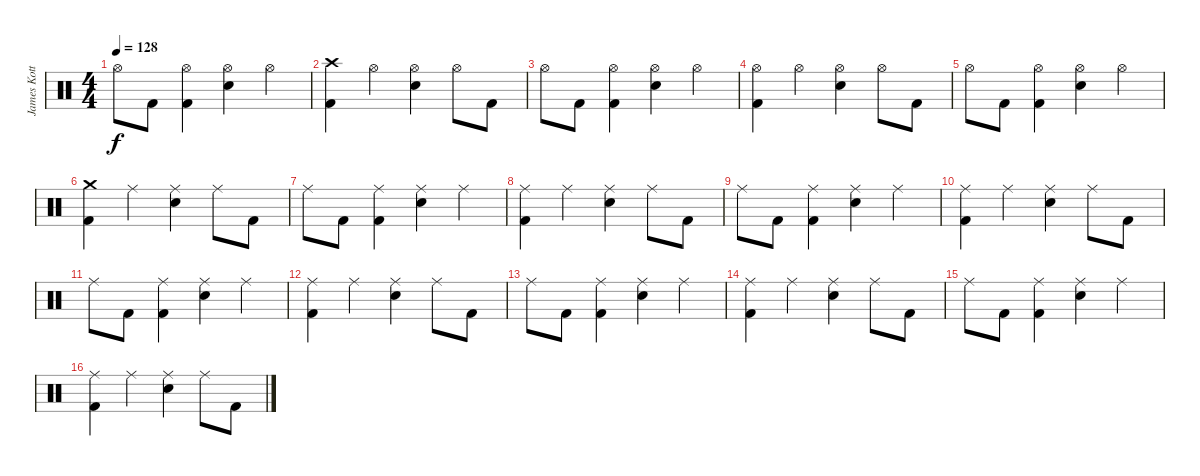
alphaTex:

\track ("James Kottak" "James Kott") {instrument percussion}
\staff {score}
\articulation defaults
\ts (4 4)
\tempo 128
\clef neutral
\ks c "Hi-Hat (open)".8{dy f} "Kick (hit) 2".8
("Hi-Hat (open)" "Kick (hit) 2").4 ("Hi-Hat (open)" "Electric Snare (hit)").4 "Hi-Hat (open)".4 |
("Crash high (hit)" "Kick (hit) 2").4 "Hi-Hat (open)".4 ("Hi-Hat (open)" "Electric Snare (hit)").4 "Hi-Hat (open)".8 "Kick (hit) 2".8 |
"Hi-Hat (open)".8 "Kick (hit) 2".8 ("Hi-Hat (open)" "Kick (hit) 2").4 ("Hi-Hat (open)" "Electric Snare (hit)").4 "Hi-Hat (open)".4 |
("Hi-Hat (open)" "Kick (hit) 2").4 "Hi-Hat (open)".4 ("Hi-Hat (open)" "Electric Snare (hit)").4 "Hi-Hat (open)".8 "Kick (hit) 2".8 |
"Hi-Hat (open)".8 "Kick (hit) 2".8 ("Hi-Hat (open)" "Kick (hit) 2").4 ("Hi-Hat (open)" "Electric Snare (hit)").4 "Hi-Hat (open)".4 |
("Crash medium (hit)" "Kick (hit) 2").4 "Ride (middle)".4 ("Ride (middle)" "Electric Snare (hit)").4 "Ride (middle)".8 "Kick (hit) 2".8 |
"Ride (middle)".8 "Kick (hit) 2".8 ("Ride (middle)" "Kick (hit) 2").4 ("Ride (middle)" "Electric Snare (hit)").4 "Ride (middle)".4 |
("Ride (middle)" "Kick (hit) 2").4 "Ride (middle)".4 ("Ride (middle)" "Electric Snare (hit)").4 "Ride (middle)".8 "Kick (hit) 2".8 |
"Ride (middle)".8 "Kick (hit) 2".8 ("Ride (middle)" "Kick (hit) 2").4 ("Ride (middle)" "Electric Snare (hit)").4 "Ride (middle)".4 |
("Ride (middle)" "Kick (hit) 2").4 "Ride (middle)".4 ("Ride (middle)" "Electric Snare (hit)").4 "Ride (middle)".8 "Kick (hit) 2".8 |
"Ride (middle)".8 "Kick (hit) 2".8 ("Ride (middle)" "Kick (hit) 2").4 ("Ride (middle)" "Electric Snare (hit)").4 "Ride (middle)".4 |
("Ride (middle)" "Kick (hit) 2").4 "Ride (middle)".4 ("Ride (middle)" "Electric Snare (hit)").4 "Ride (middle)".8 "Kick (hit) 2".8 |
"Ride (middle)".8 "Kick (hit) 2".8 ("Ride (middle)" "Kick (hit) 2").4 ("Ride (middle)" "Electric Snare (hit)").4 "Ride (middle)".4 |
("Ride (middle)" "Kick (hit) 2").4 "Ride (middle)".4 ("Ride (middle)" "Electric Snare (hit)").4 "Ride (middle)".8 "Kick (hit) 2".8 |
"Ride (middle)".8 "Kick (hit) 2".8 ("Ride (middle)" "Kick (hit) 2").4 ("Ride (middle)" "Electric Snare (hit)").4 "Ride (middle)".4 |
("Ride (middle)" "Kick (hit) 2").4 "Ride (middle)".4 ("Ride (middle)" "Electric Snare (hit)").4 "Ride (middle)".8 "Kick (hit) 2".8
